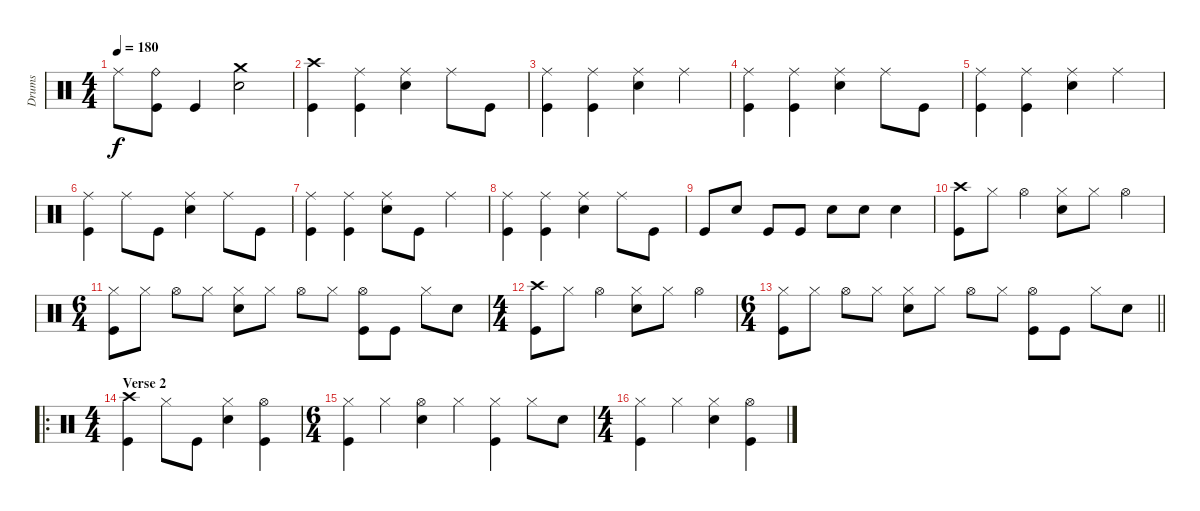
\track ("Drums" "Drums") {instrument percussion}
\staff {score}
\articulation defaults
\ts (4 4)
\tempo 180
\clef neutral
\ks c "Ride (middle)".8{dy f}
("Ride (bell)" "Kick (hit)").8 "Kick (hit)".4 ("Crash medium (hit)" "Snare (hit) 2").2 |
("Crash high (hit)" "Kick (hit)").4 ("Ride (middle)" "Kick (hit)").4 ("Ride (middle)" "Snare (hit) 2").4 "Ride (middle)".8 "Kick (hit)".8 |
("Ride (middle)" "Kick (hit)").4 ("Ride (middle)" "Kick (hit)").4 ("Ride (middle)" "Snare (hit) 2").4 "Ride (middle)".4 |
("Ride (middle)" "Kick (hit)").4 ("Ride (middle)" "Kick (hit)").4 ("Ride (middle)" "Snare (hit) 2").4 "Ride (middle)".8 "Kick (hit)".8 |
("Ride (middle)" "Kick (hit)").4 ("Ride (middle)" "Kick (hit)").4 ("Ride (middle)" "Snare (hit) 2").4 "Ride (middle)".4 |
("Ride (middle)" "Kick (hit)").4 "Ride (middle)".8 "Kick (hit)".8 ("Ride (middle)" "Snare (hit) 2").4 "Ride (middle)".8 "Kick (hit)".8 |
("Ride (middle)" "Kick (hit)").4 ("Ride (middle)" "Kick (hit)").4 ("Ride (middle)" "Snare (hit) 2").8 "Kick (hit)".8 "Ride (middle)".4 |
("Ride (middle)" "Kick (hit)").4 ("Ride (middle)" "Kick (hit)").4 ("Ride (middle)" "Snare (hit) 2").4 "Ride (middle)".8 "Kick (hit)".8 |
"Kick (hit)".8 "Snare (hit) 2".8 "Kick (hit)".8 "Kick (hit)".8 "Snare (hit) 2".8 "Snare (hit) 2".8 "Snare (hit) 2".4 |
("Crash high (hit)" "Kick (hit)").8 "Hi-Hat (closed)".8 "Hi-Hat (open)".4 ("Hi-Hat (closed)" "Snare (hit) 2").8 "Hi-Hat (closed)".8 "Hi-Hat (open)".4 |
\ts (6 4)
("Hi-Hat (closed)" "Kick (hit)").8 "Hi-Hat (closed)".8 "Hi-Hat (open)".8 "Hi-Hat (closed)".8 ("Hi-Hat (closed)" "Snare (hit) 2").8 "Hi-Hat (closed)".8 "Hi-Hat (open)".8 "Hi-Hat (closed)".8 ("Hi-Hat (open)" "Kick (hit)").8 "Kick (hit)".8 "Hi-Hat (closed)".8 "Snare (hit) 2".8 |
\ts (4 4)
("Crash high (hit)" "Kick (hit)").8 "Hi-Hat (closed)".8 "Hi-Hat (open)".4 ("Hi-Hat (closed)" "Snare (hit) 2").8 "Hi-Hat (closed)".8 "Hi-Hat (open)".4 |
\ts (6 4)
\barLineRight lightlight
("Hi-Hat (closed)" "Kick (hit)").8 "Hi-Hat (closed)".8 "Hi-Hat (open)".8 "Hi-Hat (closed)".8 ("Hi-Hat (closed)" "Snare (hit) 2").8 "Hi-Hat (closed)".8 "Hi-Hat (open)".8 "Hi-Hat (closed)".8 ("Hi-Hat (open)" "Kick (hit)").8 "Kick (hit)".8 "Hi-Hat (closed)".8 "Snare (hit) 2".8 |
\ro
\ts (4 4)
\section ("" "Verse 2")
("Crash high (hit)" "Kick (hit)").4 "Hi-Hat (closed)".8 "Kick (hit)".8 ("Hi-Hat (closed)" "Snare (hit) 2").4 ("Hi-Hat (open)" "Kick (hit)").4 |
\ts (6 4)
("Hi-Hat (closed)" "Kick (hit)").4 "Hi-Hat (closed)".4 ("Hi-Hat (open)" "Snare (hit) 2").4 "Hi-Hat (closed)".4 ("Hi-Hat (closed)" "Kick (hit)").4 "Hi-Hat (closed)".8 "Snare (hit) 2".8 |
\ts (4 4)
("Hi-Hat (closed)" "Kick (hit)").4 "Hi-Hat (closed)".4 ("Hi-Hat (closed)" "Snare (hit) 2").4 ("Hi-Hat (open)" "Kick (hit)").4
